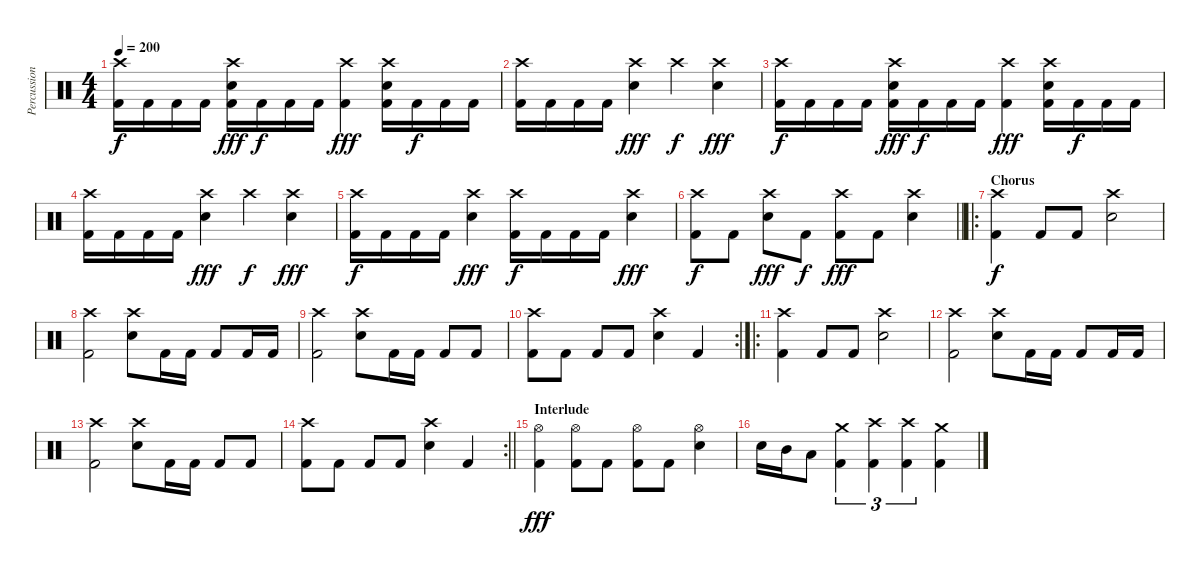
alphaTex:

\track ("Percussion" "Percussion") {instrument percussion}
\staff {score}
\articulation defaults
\ts (4 4)
\tempo 200
\clef neutral
\ks c
("Crash high (hit)" "Kick (hit) 2").16{dy f} "Kick (hit) 2".16 "Kick (hit) 2".16 "Kick (hit) 2".16 ("Crash high (hit)" "Electric Snare (hit)" "Kick (hit) 2").16{dy fff} "Kick (hit) 2".16{dy f} "Kick (hit) 2".16 "Kick (hit) 2".16 ("Crash high (hit)" "Kick (hit) 2").4{dy fff} ("Crash high (hit)" "Electric Snare (hit)" "Kick (hit) 2").16 "Kick (hit) 2".16{dy f} "Kick (hit) 2".16 "Kick (hit) 2".16 |
("Crash high (hit)" "Kick (hit) 2").16 "Kick (hit) 2".16 "Kick (hit) 2".16 "Kick (hit) 2".16 ("Crash high (hit)" "Electric Snare (hit)").4{dy fff} "Crash high (hit)".4{dy f} ("Crash high (hit)" "Electric Snare (hit)").4{dy fff} |
("Crash high (hit)" "Kick (hit) 2").16{dy f} "Kick (hit) 2".16 "Kick (hit) 2".16 "Kick (hit) 2".16 ("Crash high (hit)" "Electric Snare (hit)" "Kick (hit) 2").16{dy fff} "Kick (hit) 2".16{dy f} "Kick (hit) 2".16 "Kick (hit) 2".16 ("Crash high (hit)" "Kick (hit) 2").4{dy fff} ("Crash high (hit)" "Electric Snare (hit)" "Kick (hit) 2").16 "Kick (hit) 2".16{dy f} "Kick (hit) 2".16 "Kick (hit) 2".16 |
("Crash high (hit)" "Kick (hit) 2").16 "Kick (hit) 2".16 "Kick (hit) 2".16 "Kick (hit) 2".16 ("Crash high (hit)" "Electric Snare (hit)").4{dy fff} "Crash high (hit)".4{dy f} ("Crash high (hit)" "Electric Snare (hit)").4{dy fff} |
("Crash high (hit)" "Kick (hit) 2").16{dy f} "Kick (hit) 2".16 "Kick (hit) 2".16 "Kick (hit) 2".16 ("Crash high (hit)" "Electric Snare (hit)").4{dy fff} ("Crash high (hit)" "Kick (hit) 2").16{dy f} "Kick (hit) 2".16 "Kick (hit) 2".16 "Kick (hit) 2".16 ("Crash high (hit)" "Electric Snare (hit)").4{dy fff} |
\barLineRight lightlight
("Crash high (hit)" "Kick (hit) 2").8{dy f} "Kick (hit) 2".8 ("Crash high (hit)" "Electric Snare (hit)").8{dy fff} "Kick (hit) 2".8{dy f} ("Crash high (hit)" "Kick (hit) 2").8{dy fff} "Kick (hit) 2".8 ("Crash high (hit)" "Electric Snare (hit)").4 |
\ro
\section ("" "Chorus")
("Crash high (hit)" "Kick (hit) 2").4{dy f} "Kick (hit) 2".8 "Kick (hit) 2".8 ("Crash high (hit)" "Electric Snare (hit)").2 |
("Crash high (hit)" "Kick (hit) 2").2 ("Crash high (hit)" "Electric Snare (hit)").8 "Kick (hit) 2".16 "Kick (hit) 2".16 "Kick (hit) 2".8 "Kick (hit) 2".16 "Kick (hit) 2".16 |
("Crash high (hit)" "Kick (hit) 2").2 ("Crash high (hit)" "Electric Snare (hit)").8 "Kick (hit) 2".16 "Kick (hit) 2".16 "Kick (hit) 2".8 "Kick (hit) 2".8 |
\rc 2
("Crash high (hit)" "Kick (hit) 2").8 "Kick (hit) 2".8 "Kick (hit) 2".8 "Kick (hit) 2".8 ("Crash high (hit)" "Electric Snare (hit)").4 "Kick (hit) 2".4 |
\ro
("Crash high (hit)" "Kick (hit) 2").4 "Kick (hit) 2".8 "Kick (hit) 2".8 ("Crash high (hit)" "Electric Snare (hit)").2 |
("Crash high (hit)" "Kick (hit) 2").2 ("Crash high (hit)" "Electric Snare (hit)").8 "Kick (hit) 2".16 "Kick (hit) 2".16 "Kick (hit) 2".8 "Kick (hit) 2".16 "Kick (hit) 2".16 |
("Crash high (hit)" "Kick (hit) 2").2 ("Crash high (hit)" "Electric Snare (hit)").8 "Kick (hit) 2".16 "Kick (hit) 2".16 "Kick (hit) 2".8 "Kick (hit) 2".8 |
\rc 2
\barLineRight lightlight
("Crash high (hit)" "Kick (hit) 2").8 "Kick (hit) 2".8 "Kick (hit) 2".8 "Kick (hit) 2".8 ("Crash high (hit)" "Electric Snare (hit)").4 "Kick (hit) 2".4 |
\section ("" "Interlude")
("Hi-Hat (open)" "Kick (hit) 2").4{dy fff} ("Hi-Hat (open)" "Kick (hit) 2").8 "Kick (hit) 2".8 ("Hi-Hat (open)" "Kick (hit) 2").8 "Kick (hit) 2".8 ("Hi-Hat (open)" "Electric Snare (hit)").4 |
"Electric Snare (hit)".16 "Mid Tom (hit)".16 "Low Tom (hit)".8 ("Crash medium (hit)" "Kick (hit) 2").4{tu (3 2)} ("Crash high (hit)" "Kick (hit) 2").4{tu (3 2)} ("Crash high (hit)" "Kick (hit) 2").4{tu (3 2)} ("Crash medium (hit)" "Kick (hit) 2").4
